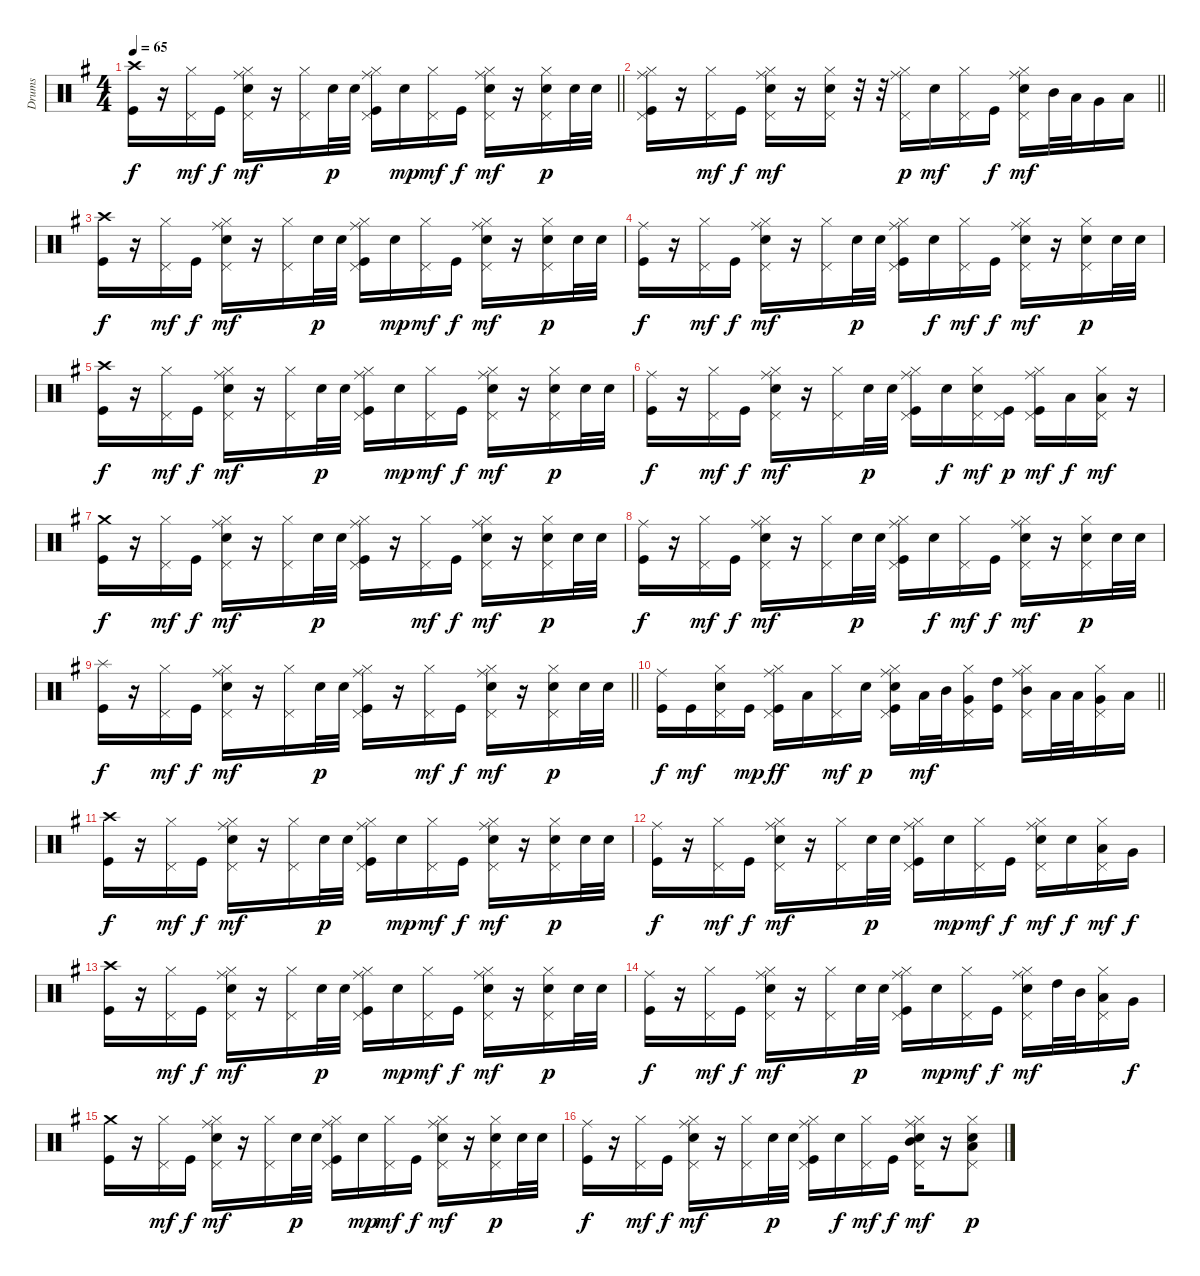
\track ("Drums" "Drums") {instrument percussion}
\staff {score}
\articulation defaults
\ts (4 4)
\tempo 65
\clef neutral
\barLineRight lightlight
\ks eminor
("Crash high (hit)" "Kick (hit)").16{dy f} r.16 ("Hi-Hat (closed)" "Pedal Hi-Hat (hit)").16{dy mf} "Kick (hit)".16{dy f} ("Ride (middle)" "Hi-Hat (closed)" "Pedal Hi-Hat (hit)" "Electric Snare (hit)").16{dy mf} r.16 ("Hi-Hat (closed)" "Pedal Hi-Hat (hit)").16 "Electric Snare (hit)".32{dy p} "Electric Snare (hit)".32 ("Ride (middle)" "Hi-Hat (closed)" "Pedal Hi-Hat (hit)" "Kick (hit)").16 "Electric Snare (hit)".16{dy mp} ("Hi-Hat (closed)" "Pedal Hi-Hat (hit)").16{dy mf} "Kick (hit)".16{dy f} ("Ride (middle)" "Hi-Hat (closed)" "Pedal Hi-Hat (hit)" "Electric Snare (hit)").16{dy mf} r.16 ("Hi-Hat (closed)" "Pedal Hi-Hat (hit)" "Electric Snare (hit)").16{dy p} "Electric Snare (hit)".32 "Electric Snare (hit)".32 |
\barLineRight lightlight
("Ride (middle)" "Hi-Hat (closed)" "Pedal Hi-Hat (hit)" "Kick (hit)").16 r.16 ("Hi-Hat (closed)" "Pedal Hi-Hat (hit)").16{dy mf} "Kick (hit)".16{dy f} ("Ride (middle)" "Hi-Hat (closed)" "Pedal Hi-Hat (hit)" "Electric Snare (hit)").16{dy mf} r.16 ("Hi-Hat (closed)" "Pedal Hi-Hat (hit)" "Electric Snare (hit)").16 r.32 r.32 ("Ride (middle)" "Hi-Hat (closed)" "Pedal Hi-Hat (hit)").16{dy p} "Electric Snare (hit)".16{dy mf} ("Hi-Hat (closed)" "Pedal Hi-Hat (hit)").16 "Kick (hit)".16{dy f} ("Ride (middle)" "Hi-Hat (closed)" "Pedal Hi-Hat (hit)" "Electric Snare (hit)").16{dy mf} "Mid Tom (hit)".32 "Low Tom (hit)".32 "Very Low Tom (hit)".16 "Low Floor Tom (hit)".16 |
\section ("" "")
("Crash high (hit)" "Kick (hit)").16{dy f} r.16 ("Hi-Hat (closed)" "Pedal Hi-Hat (hit)").16{dy mf} "Kick (hit)".16{dy f} ("Ride (middle)" "Hi-Hat (closed)" "Pedal Hi-Hat (hit)" "Electric Snare (hit)").16{dy mf} r.16 ("Hi-Hat (closed)" "Pedal Hi-Hat (hit)").16 "Electric Snare (hit)".32{dy p} "Electric Snare (hit)".32 ("Ride (middle)" "Hi-Hat (closed)" "Pedal Hi-Hat (hit)" "Kick (hit)").16 "Electric Snare (hit)".16{dy mp} ("Hi-Hat (closed)" "Pedal Hi-Hat (hit)").16{dy mf} "Kick (hit)".16{dy f} ("Ride (middle)" "Hi-Hat (closed)" "Pedal Hi-Hat (hit)" "Electric Snare (hit)").16{dy mf} r.16 ("Hi-Hat (closed)" "Pedal Hi-Hat (hit)" "Electric Snare (hit)").16{dy p} "Electric Snare (hit)".32 "Electric Snare (hit)".32 |
("Ride (middle)" "Kick (hit)").16{dy f} r.16 ("Hi-Hat (closed)" "Pedal Hi-Hat (hit)").16{dy mf} "Kick (hit)".16{dy f} ("Ride (middle)" "Hi-Hat (closed)" "Pedal Hi-Hat (hit)" "Electric Snare (hit)").16{dy mf} r.16 ("Hi-Hat (closed)" "Pedal Hi-Hat (hit)").16 "Electric Snare (hit)".32{dy p} "Electric Snare (hit)".32 ("Ride (middle)" "Hi-Hat (closed)" "Pedal Hi-Hat (hit)" "Kick (hit)").16 "Electric Snare (hit)".16{dy f} ("Hi-Hat (closed)" "Pedal Hi-Hat (hit)").16{dy mf} "Kick (hit)".16{dy f} ("Ride (middle)" "Hi-Hat (closed)" "Pedal Hi-Hat (hit)" "Electric Snare (hit)").16{dy mf} r.16 ("Hi-Hat (closed)" "Pedal Hi-Hat (hit)" "Electric Snare (hit)").16{dy p} "Electric Snare (hit)".32 "Electric Snare (hit)".32 |
("Crash high (hit)" "Kick (hit)").16{dy f} r.16 ("Hi-Hat (closed)" "Pedal Hi-Hat (hit)").16{dy mf} "Kick (hit)".16{dy f} ("Ride (middle)" "Hi-Hat (closed)" "Pedal Hi-Hat (hit)" "Electric Snare (hit)").16{dy mf} r.16 ("Hi-Hat (closed)" "Pedal Hi-Hat (hit)").16 "Electric Snare (hit)".32{dy p} "Electric Snare (hit)".32 ("Ride (middle)" "Hi-Hat (closed)" "Pedal Hi-Hat (hit)" "Kick (hit)").16 "Electric Snare (hit)".16{dy mp} ("Hi-Hat (closed)" "Pedal Hi-Hat (hit)").16{dy mf} "Kick (hit)".16{dy f} ("Ride (middle)" "Hi-Hat (closed)" "Pedal Hi-Hat (hit)" "Electric Snare (hit)").16{dy mf} r.16 ("Hi-Hat (closed)" "Pedal Hi-Hat (hit)" "Electric Snare (hit)").16{dy p} "Electric Snare (hit)".32 "Electric Snare (hit)".32 |
("Ride (middle)" "Kick (hit)").16{dy f} r.16 ("Hi-Hat (closed)" "Pedal Hi-Hat (hit)").16{dy mf} "Kick (hit)".16{dy f} ("Ride (middle)" "Hi-Hat (closed)" "Pedal Hi-Hat (hit)" "Electric Snare (hit)").16{dy mf} r.16 ("Hi-Hat (closed)" "Pedal Hi-Hat (hit)").16 "Electric Snare (hit)".32{dy p} "Electric Snare (hit)".32 ("Ride (middle)" "Hi-Hat (closed)" "Pedal Hi-Hat (hit)" "Kick (hit)").16 "Electric Snare (hit)".16{dy f} ("Hi-Hat (closed)" "Pedal Hi-Hat (hit)" "Electric Snare (hit)").16{dy mf} ("Pedal Hi-Hat (hit)" "Kick (hit)").16{dy p} ("Ride (middle)" "Hi-Hat (closed)" "Pedal Hi-Hat (hit)" "Kick (hit)").16{dy mf} "Low Tom (hit)".16{dy f} ("Hi-Hat (closed)" "Pedal Hi-Hat (hit)" "Low Tom (hit)").16{dy mf} r.16 |
("Crash medium (hit)" "Kick (hit)").16{dy f} r.16 ("Hi-Hat (closed)" "Pedal Hi-Hat (hit)").16{dy mf} "Kick (hit)".16{dy f} ("Ride (middle)" "Hi-Hat (closed)" "Pedal Hi-Hat (hit)" "Electric Snare (hit)").16{dy mf} r.16 ("Hi-Hat (closed)" "Pedal Hi-Hat (hit)").16 "Electric Snare (hit)".32{dy p} "Electric Snare (hit)".32 ("Ride (middle)" "Hi-Hat (closed)" "Pedal Hi-Hat (hit)" "Kick (hit)").16 r.16 ("Hi-Hat (closed)" "Pedal Hi-Hat (hit)").16{dy mf} "Kick (hit)".16{dy f} ("Ride (middle)" "Hi-Hat (closed)" "Pedal Hi-Hat (hit)" "Electric Snare (hit)").16{dy mf} r.16 ("Hi-Hat (closed)" "Pedal Hi-Hat (hit)" "Electric Snare (hit)").16{dy p} "Electric Snare (hit)".32 "Electric Snare (hit)".32 |
("Ride (middle)" "Kick (hit)").16{dy f} r.16 ("Hi-Hat (closed)" "Pedal Hi-Hat (hit)").16{dy mf} "Kick (hit)".16{dy f} ("Ride (middle)" "Hi-Hat (closed)" "Pedal Hi-Hat (hit)" "Electric Snare (hit)").16{dy mf} r.16 ("Hi-Hat (closed)" "Pedal Hi-Hat (hit)").16 "Electric Snare (hit)".32{dy p} "Electric Snare (hit)".32 ("Ride (middle)" "Hi-Hat (closed)" "Pedal Hi-Hat (hit)" "Kick (hit)").16 "Electric Snare (hit)".16{dy f} ("Hi-Hat (closed)" "Pedal Hi-Hat (hit)").16{dy mf} "Kick (hit)".16{dy f} ("Ride (middle)" "Hi-Hat (closed)" "Pedal Hi-Hat (hit)" "Electric Snare (hit)").16{dy mf} r.16 ("Hi-Hat (closed)" "Pedal Hi-Hat (hit)" "Electric Snare (hit)").16{dy p} "Electric Snare (hit)".32 "Electric Snare (hit)".32 |
\barLineRight lightlight
("Splash (hit)" "Kick (hit)").16{dy f} r.16 ("Hi-Hat (closed)" "Pedal Hi-Hat (hit)").16{dy mf} "Kick (hit)".16{dy f} ("Ride (middle)" "Hi-Hat (closed)" "Pedal Hi-Hat (hit)" "Electric Snare (hit)").16{dy mf} r.16 ("Hi-Hat (closed)" "Pedal Hi-Hat (hit)").16 "Electric Snare (hit)".32{dy p} "Electric Snare (hit)".32 ("Ride (middle)" "Hi-Hat (closed)" "Pedal Hi-Hat (hit)" "Kick (hit)").16 r.16 ("Hi-Hat (closed)" "Pedal Hi-Hat (hit)").16{dy mf} "Kick (hit)".16{dy f} ("Ride (middle)" "Hi-Hat (closed)" "Pedal Hi-Hat (hit)" "Electric Snare (hit)").16{dy mf} r.16 ("Hi-Hat (closed)" "Pedal Hi-Hat (hit)" "Electric Snare (hit)").16{dy p} "Electric Snare (hit)".32 "Electric Snare (hit)".32 |
\barLineRight lightlight
("Ride (middle)" "Kick (hit)").16{dy f} "Kick (hit)".16{dy mf} ("Hi-Hat (closed)" "Pedal Hi-Hat (hit)" "Electric Snare (hit)").16 "Kick (hit)".16{dy mp} ("Ride (middle)" "Hi-Hat (closed)" "Pedal Hi-Hat (hit)" "Kick (hit)").16{dy ff} "Low Tom (hit)".16 ("Hi-Hat (closed)" "Pedal Hi-Hat (hit)").16{dy mf} "Electric Snare (hit)".16{dy p} ("Ride (middle)" "Hi-Hat (closed)" "Pedal Hi-Hat (hit)" "Electric Snare (hit)" "Kick (hit)").16 "Low Tom (hit)".32{dy mf} "Mid Tom (hit)".32 ("Hi-Hat (closed)" "Pedal Hi-Hat (hit)" "Very Low Tom (hit)").16 ("High Tom (hit)" "Kick (hit)").16 ("Ride (middle)" "Hi-Hat (closed)" "Pedal Hi-Hat (hit)" "Mid Tom (hit)").16 "Low Tom (hit)".32 "Low Tom (hit)".32 ("Hi-Hat (closed)" "Pedal Hi-Hat (hit)" "Very Low Tom (hit)").16 "Low Floor Tom (hit)".16 |
\section ("" "")
("Crash high (hit)" "Kick (hit)").16{dy f volume 12} r.16 ("Hi-Hat (closed)" "Pedal Hi-Hat (hit)").16{dy mf} "Kick (hit)".16{dy f} ("Ride (middle)" "Hi-Hat (closed)" "Pedal Hi-Hat (hit)" "Electric Snare (hit)").16{dy mf} r.16 ("Hi-Hat (closed)" "Pedal Hi-Hat (hit)").16 "Electric Snare (hit)".32{dy p} "Electric Snare (hit)".32 ("Ride (middle)" "Hi-Hat (closed)" "Pedal Hi-Hat (hit)" "Kick (hit)").16 "Electric Snare (hit)".16{dy mp} ("Hi-Hat (closed)" "Pedal Hi-Hat (hit)").16{dy mf} "Kick (hit)".16{dy f} ("Ride (middle)" "Hi-Hat (closed)" "Pedal Hi-Hat (hit)" "Electric Snare (hit)").16{dy mf} r.16 ("Hi-Hat (closed)" "Pedal Hi-Hat (hit)" "Electric Snare (hit)").16{dy p} "Electric Snare (hit)".32 "Electric Snare (hit)".32 |
("Ride (middle)" "Kick (hit)").16{dy f} r.16 ("Hi-Hat (closed)" "Pedal Hi-Hat (hit)").16{dy mf} "Kick (hit)".16{dy f} ("Ride (middle)" "Hi-Hat (closed)" "Pedal Hi-Hat (hit)" "Electric Snare (hit)").16{dy mf} r.16 ("Hi-Hat (closed)" "Pedal Hi-Hat (hit)").16 "Electric Snare (hit)".32{dy p} "Electric Snare (hit)".32 ("Ride (middle)" "Hi-Hat (closed)" "Pedal Hi-Hat (hit)" "Kick (hit)").16 "Electric Snare (hit)".16{dy mp} ("Hi-Hat (closed)" "Pedal Hi-Hat (hit)").16{dy mf} "Kick (hit)".16{dy f} ("Ride (middle)" "Hi-Hat (closed)" "Pedal Hi-Hat (hit)" "Electric Snare (hit)").16{dy mf} "Electric Snare (hit)".16{dy f} ("Hi-Hat (closed)" "Pedal Hi-Hat (hit)" "Low Tom (hit)").16{dy mf} "Very Low Tom (hit)".16{dy f} |
("Crash high (hit)" "Kick (hit)").16 r.16 ("Hi-Hat (closed)" "Pedal Hi-Hat (hit)").16{dy mf} "Kick (hit)".16{dy f} ("Ride (middle)" "Hi-Hat (closed)" "Pedal Hi-Hat (hit)" "Electric Snare (hit)").16{dy mf} r.16 ("Hi-Hat (closed)" "Pedal Hi-Hat (hit)").16 "Electric Snare (hit)".32{dy p} "Electric Snare (hit)".32 ("Ride (middle)" "Hi-Hat (closed)" "Pedal Hi-Hat (hit)" "Kick (hit)").16 "Electric Snare (hit)".16{dy mp} ("Hi-Hat (closed)" "Pedal Hi-Hat (hit)").16{dy mf} "Kick (hit)".16{dy f} ("Ride (middle)" "Hi-Hat (closed)" "Pedal Hi-Hat (hit)" "Electric Snare (hit)").16{dy mf} r.16 ("Hi-Hat (closed)" "Pedal Hi-Hat (hit)" "Electric Snare (hit)").16{dy p} "Electric Snare (hit)".32 "Electric Snare (hit)".32 |
("Ride (middle)" "Kick (hit)").16{dy f} r.16 ("Hi-Hat (closed)" "Pedal Hi-Hat (hit)").16{dy mf} "Kick (hit)".16{dy f} ("Ride (middle)" "Hi-Hat (closed)" "Pedal Hi-Hat (hit)" "Electric Snare (hit)").16{dy mf} r.16 ("Hi-Hat (closed)" "Pedal Hi-Hat (hit)").16 "Electric Snare (hit)".32{dy p} "Electric Snare (hit)".32 ("Ride (middle)" "Hi-Hat (closed)" "Pedal Hi-Hat (hit)" "Kick (hit)").16 "Electric Snare (hit)".16{dy mp} ("Hi-Hat (closed)" "Pedal Hi-Hat (hit)").16{dy mf} "Kick (hit)".16{dy f} ("Ride (middle)" "Hi-Hat (closed)" "Pedal Hi-Hat (hit)" "Electric Snare (hit)").16{dy mf} "High Tom (hit)".32 "Mid Tom (hit)".32 ("Hi-Hat (closed)" "Pedal Hi-Hat (hit)" "Low Tom (hit)").16 "Very Low Tom (hit)".16{dy f} |
("Crash medium (hit)" "Kick (hit)").16 r.16 ("Hi-Hat (closed)" "Pedal Hi-Hat (hit)").16{dy mf} "Kick (hit)".16{dy f} ("Ride (middle)" "Hi-Hat (closed)" "Pedal Hi-Hat (hit)" "Electric Snare (hit)").16{dy mf} r.16 ("Hi-Hat (closed)" "Pedal Hi-Hat (hit)").16 "Electric Snare (hit)".32{dy p} "Electric Snare (hit)".32 ("Ride (middle)" "Hi-Hat (closed)" "Pedal Hi-Hat (hit)" "Kick (hit)").16 "Electric Snare (hit)".16{dy mp} ("Hi-Hat (closed)" "Pedal Hi-Hat (hit)").16{dy mf} "Kick (hit)".16{dy f} ("Ride (middle)" "Hi-Hat (closed)" "Pedal Hi-Hat (hit)" "Electric Snare (hit)").16{dy mf} r.16 ("Hi-Hat (closed)" "Pedal Hi-Hat (hit)" "Electric Snare (hit)").16{dy p} "Electric Snare (hit)".32 "Electric Snare (hit)".32 |
("Ride (middle)" "Kick (hit)").16{dy f} r.16 ("Hi-Hat (closed)" "Pedal Hi-Hat (hit)").16{dy mf} "Kick (hit)".16{dy f} ("Ride (middle)" "Hi-Hat (closed)" "Pedal Hi-Hat (hit)" "Electric Snare (hit)").16{dy mf} r.16 ("Hi-Hat (closed)" "Pedal Hi-Hat (hit)").16 "Electric Snare (hit)".32{dy p} "Electric Snare (hit)".32 ("Ride (middle)" "Hi-Hat (closed)" "Pedal Hi-Hat (hit)" "Kick (hit)").16 "Electric Snare (hit)".16{dy f} ("Hi-Hat (closed)" "Pedal Hi-Hat (hit)").16{dy mf} "Kick (hit)".16{dy f} ("Ride (middle)" "Hi-Hat (closed)" "Pedal Hi-Hat (hit)" "Mid Tom (hit)" "Electric Snare (hit)").16{dy mf} r.16 ("Hi-Hat (closed)" "Pedal Hi-Hat (hit)" "Low Tom (hit)" "Electric Snare (hit)").8{dy p}
